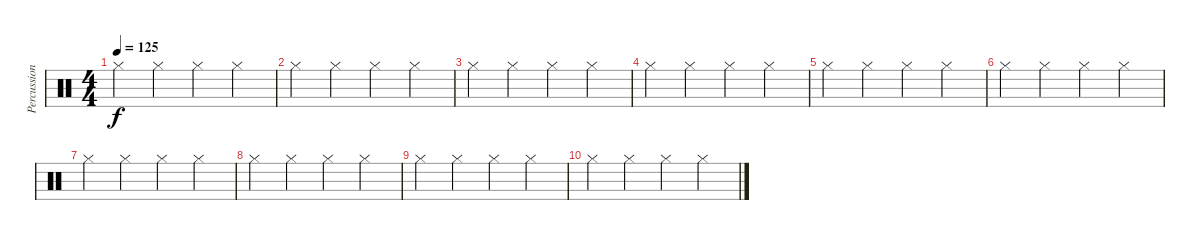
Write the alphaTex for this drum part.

\track ("Percussion" "Percussion") {instrument percussion}
\staff {score}
\articulation defaults
\ts (4 4)
\tempo 125
\clef neutral
\ks c "Hi-Hat (closed)".4{dy f} "Hi-Hat (closed)".4 "Hi-Hat (closed)".4 "Hi-Hat (closed)".4
|
"Hi-Hat (closed)".4 "Hi-Hat (closed)".4 "Hi-Hat (closed)".4 "Hi-Hat (closed)".4 |
"Hi-Hat (closed)".4 "Hi-Hat (closed)".4 "Hi-Hat (closed)".4 "Hi-Hat (closed)".4 |
"Hi-Hat (closed)".4 "Hi-Hat (closed)".4 "Hi-Hat (closed)".4 "Hi-Hat (closed)".4 |
"Hi-Hat (closed)".4 "Hi-Hat (closed)".4 "Hi-Hat (closed)".4 "Hi-Hat (closed)".4 |
"Hi-Hat (closed)".4 "Hi-Hat (closed)".4 "Hi-Hat (closed)".4 "Hi-Hat (closed)".4 |
"Hi-Hat (closed)".4 "Hi-Hat (closed)".4 "Hi-Hat (closed)".4 "Hi-Hat (closed)".4 |
"Hi-Hat (closed)".4 "Hi-Hat (closed)".4 "Hi-Hat (closed)".4 "Hi-Hat (closed)".4 |
"Hi-Hat (closed)".4 "Hi-Hat (closed)".4 "Hi-Hat (closed)".4 "Hi-Hat (closed)".4 |
"Hi-Hat (closed)".4 "Hi-Hat (closed)".4 "Hi-Hat (closed)".4 "Hi-Hat (closed)".4
